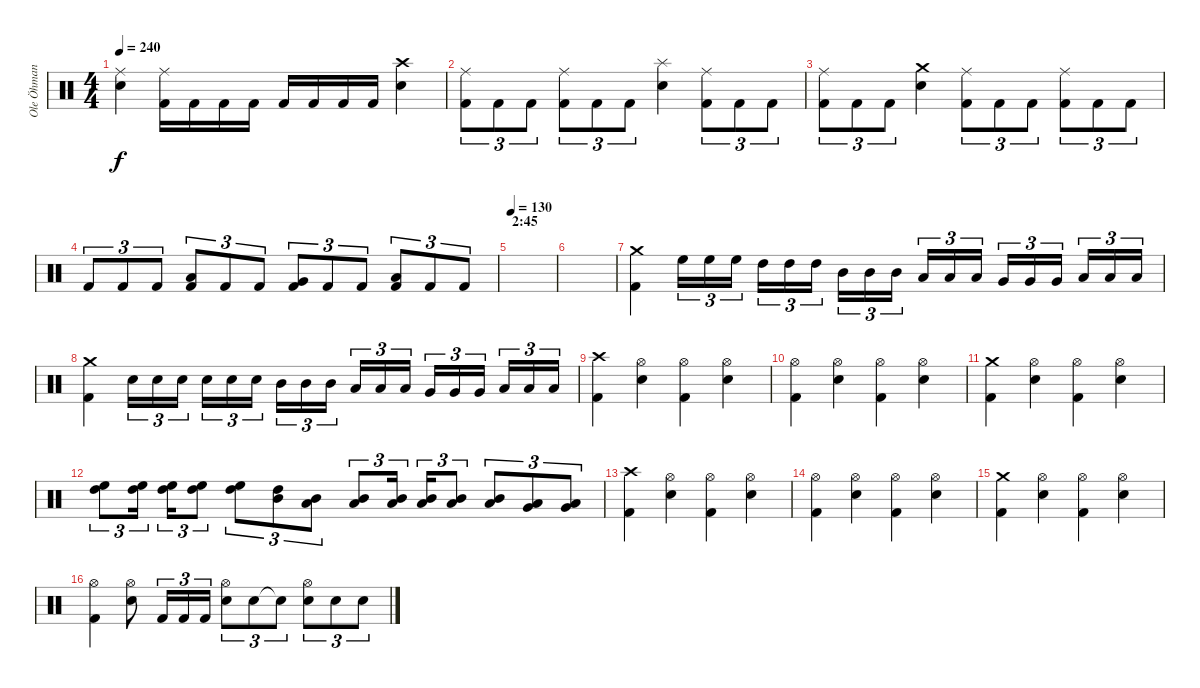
\track ("Ole Öhman" "Ole Öhman") {instrument percussion}
\staff {score}
\articulation defaults
\ts (4 4)
\tempo 240
\clef neutral
\ks c
("Ride (middle)" "Electric Snare (hit)").4{dy f} ("Ride (middle)" "Kick (hit) 2").16 "Kick (hit) 2".16 "Kick (hit) 2".16 "Kick (hit) 2".16 "Kick (hit) 2".16 "Kick (hit) 2".16 "Kick (hit) 2".16 "Kick (hit) 2".16 ("Crash high (hit)" "Electric Snare (hit)").4 |
("Ride (middle)" "Kick (hit) 2").8{tu (3 2)} "Kick (hit) 2".8{tu (3 2)} "Kick (hit) 2".8{tu (3 2)} ("Ride (middle)" "Kick (hit) 2").8{tu (3 2)} "Kick (hit) 2".8{tu (3 2)} "Kick (hit) 2".8{tu (3 2)} ("Splash (hit)" "Electric Snare (hit)").4 ("Ride (middle)" "Kick (hit) 2").8{tu (3 2)} "Kick (hit) 2".8{tu (3 2)} "Kick (hit) 2".8{tu (3 2)} |
("Ride (middle)" "Kick (hit) 2").8{tu (3 2)} "Kick (hit) 2".8{tu (3 2)} "Kick (hit) 2".8{tu (3 2)} ("Crash medium (hit)" "Electric Snare (hit)").4 ("Ride (middle)" "Kick (hit) 2").8{tu (3 2)} "Kick (hit) 2".8{tu (3 2)} "Kick (hit) 2".8{tu (3 2)} ("Ride (middle)" "Kick (hit) 2").8{tu (3 2)} "Kick (hit) 2".8{tu (3 2)} "Kick (hit) 2".8{tu (3 2)} |
"Kick (hit) 2".8{tu (3 2)} "Kick (hit) 2".8{tu (3 2)} "Kick (hit) 2".8{tu (3 2)} ("Low Tom (hit)" "Kick (hit) 2").8{tu (3 2)} "Kick (hit) 2".8{tu (3 2)} "Kick (hit) 2".8{tu (3 2)} ("Very Low Tom (hit)" "Kick (hit) 2").8{tu (3 2)} "Kick (hit) 2".8{tu (3 2)} "Kick (hit) 2".8{tu (3 2)} ("Low Floor Tom (hit)" "Kick (hit) 2").8{tu (3 2)} "Kick (hit) 2".8{tu (3 2)} "Kick (hit) 2".8{tu (3 2)} |
\section ("" "2:45")
\tempo 130
|
|
("Crash medium (hit)" "Kick (hit) 2").4 "High Floor Tom (hit)".16{tu (3 2)} "High Floor Tom (hit)".16{tu (3 2)} "High Floor Tom (hit)".16{tu (3 2)} "High Tom (hit)".16{tu (3 2)} "High Tom (hit)".16{tu (3 2)} "High Tom (hit)".16{tu (3 2)} "Mid Tom (hit)".16{tu (3 2)} "Mid Tom (hit)".16{tu (3 2)} "Mid Tom (hit)".16{tu (3 2)} "Low Tom (hit)".16{tu (3 2)} "Low Tom (hit)".16{tu (3 2)} "Low Tom (hit)".16{tu (3 2)} "Very Low Tom (hit)".16{tu (3 2)} "Very Low Tom (hit)".16{tu (3 2)} "Very Low Tom (hit)".16{tu (3 2)} "Low Floor Tom (hit)".16{tu (3 2)} "Low Floor Tom (hit)".16{tu (3 2)} "Low Floor Tom (hit)".16{tu (3 2)} |
("Crash medium (hit)" "Kick (hit) 2").4 "Electric Snare (hit)".16{tu (3 2)} "Electric Snare (hit)".16{tu (3 2)} "Electric Snare (hit)".16{tu (3 2)} "Electric Snare (hit)".16{tu (3 2)} "Electric Snare (hit)".16{tu (3 2)} "Electric Snare (hit)".16{tu (3 2)} "Mid Tom (hit)".16{tu (3 2)} "Mid Tom (hit)".16{tu (3 2)} "Mid Tom (hit)".16{tu (3 2)} "Low Tom (hit)".16{tu (3 2)} "Low Tom (hit)".16{tu (3 2)} "Low Tom (hit)".16{tu (3 2)} "Very Low Tom (hit)".16{tu (3 2)} "Very Low Tom (hit)".16{tu (3 2)} "Very Low Tom (hit)".16{tu (3 2)} "Low Floor Tom (hit)".16{tu (3 2)} "Low Floor Tom (hit)".16{tu (3 2)} "Low Floor Tom (hit)".16{tu (3 2)} |
("Crash high (hit)" "Kick (hit) 2").4 ("Hi-Hat (open)" "Electric Snare (hit)").4 ("Hi-Hat (open)" "Kick (hit) 2").4 ("Hi-Hat (open)" "Electric Snare (hit)").4 |
("Hi-Hat (open)" "Kick (hit) 2").4 ("Hi-Hat (open)" "Electric Snare (hit)").4 ("Hi-Hat (open)" "Kick (hit) 2").4 ("Hi-Hat (open)" "Electric Snare (hit)").4 |
("Crash medium (hit)" "Kick (hit) 2").4 ("Hi-Hat (open)" "Electric Snare (hit)").4 ("Hi-Hat (open)" "Kick (hit) 2").4 ("Hi-Hat (open)" "Electric Snare (hit)").4 |
("High Floor Tom (hit)" "High Tom (hit)").8{tu (3 2)} ("High Floor Tom (hit)" "High Tom (hit)").16{tu (3 2)} ("High Floor Tom (hit)" "High Tom (hit)").16{tu (3 2)} ("High Floor Tom (hit)" "High Tom (hit)").8{tu (3 2)} ("High Floor Tom (hit)" "High Tom (hit)").8{tu (3 2)} ("High Tom (hit)" "Mid Tom (hit)").8{tu (3 2)} ("Mid Tom (hit)" "Low Tom (hit)").8{tu (3 2)} ("Mid Tom (hit)" "Low Tom (hit)").8{tu (3 2)} ("Mid Tom (hit)" "Low Tom (hit)").16{tu (3 2)} ("Mid Tom (hit)" "Low Tom (hit)").16{tu (3 2)} ("Mid Tom (hit)" "Low Tom (hit)").8{tu (3 2)} ("Mid Tom (hit)" "Low Tom (hit)").8{tu (3 2)} ("Low Tom (hit)" "Very Low Tom (hit)").8{tu (3 2)} ("Very Low Tom (hit)" "Low Floor Tom (hit)").8{tu (3 2)} |
("Crash high (hit)" "Kick (hit) 2").4 ("Hi-Hat (open)" "Electric Snare (hit)").4 ("Hi-Hat (open)" "Kick (hit) 2").4 ("Hi-Hat (open)" "Electric Snare (hit)").4 |
("Hi-Hat (open)" "Kick (hit) 2").4 ("Hi-Hat (open)" "Electric Snare (hit)").4 ("Hi-Hat (open)" "Kick (hit) 2").4 ("Hi-Hat (open)" "Electric Snare (hit)").4 |
("Crash medium (hit)" "Kick (hit) 2").4 ("Hi-Hat (open)" "Electric Snare (hit)").4 ("Hi-Hat (open)" "Kick (hit) 2").4 ("Hi-Hat (open)" "Electric Snare (hit)").4 |
("Hi-Hat (open)" "Kick (hit) 2").4 ("Hi-Hat (open)" "Electric Snare (hit)").8 "Kick (hit) 2".16{tu (3 2)} "Kick (hit) 2".16{tu (3 2)} "Kick (hit) 2".16{tu (3 2)} ("Hi-Hat (open)" "Electric Snare (hit)").8{tu (3 2)} "Electric Snare (hit)".8{tu (3 2)} "Electric Snare (hit)"{t}.8{tu (3 2)} ("Hi-Hat (open)" "Electric Snare (hit)").8{tu (3 2)} "Electric Snare (hit)".8{tu (3 2)} "Electric Snare (hit)".8{tu (3 2)}
